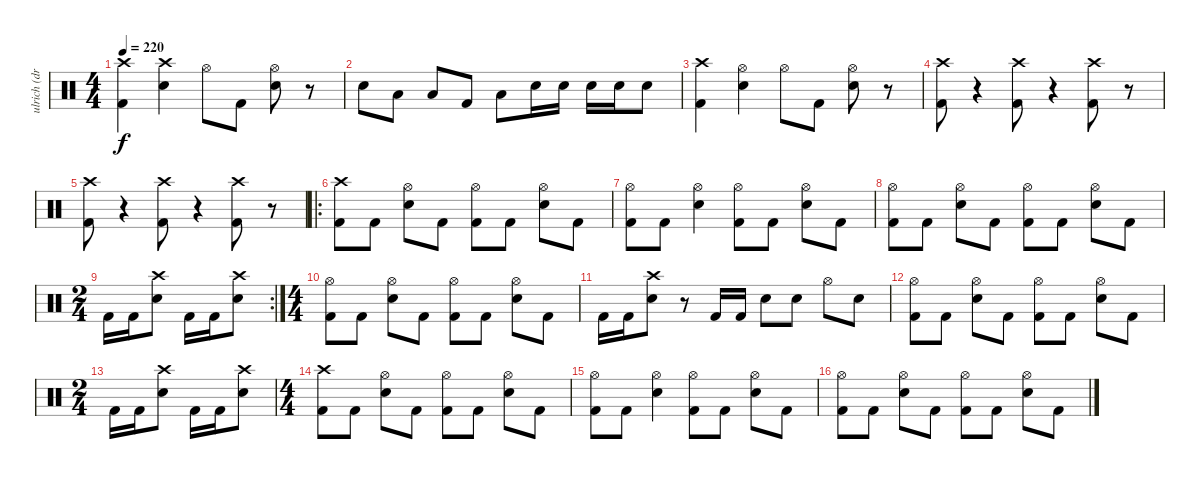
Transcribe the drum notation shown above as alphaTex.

\track ("ulrich (drums)" "ulrich (dr") {instrument percussion}
\staff {score}
\articulation defaults
\ts (4 4)
\tempo 220
\clef neutral
\ks c
("Crash high (hit)" "Kick (hit) 2").4{dy f} ("Crash high (hit)" "Snare (hit) 2").4 "Hi-Hat (open)".8 "Kick (hit) 2".8 ("Hi-Hat (open)" "Snare (hit) 2").8 r.8 |
"Snare (hit) 2".8 "Low Tom (hit)".8 "Low Tom (hit)".8 "Kick (hit) 2".8 "Low Tom (hit)".8 "Snare (hit) 2".16 "Snare (hit) 2".16 "Snare (hit) 2".16 "Snare (hit) 2".16 "Snare (hit) 2".8 |
("Crash high (hit)" "Kick (hit) 2").4 ("Hi-Hat (open)" "Snare (hit) 2").4 "Hi-Hat (open)".8 "Kick (hit) 2".8 ("Hi-Hat (open)" "Snare (hit) 2").8 r.8 |
("Crash high (hit)" "Kick (hit) 2").8 r.4 ("Crash high (hit)" "Kick (hit) 2").8 r.4 ("Crash high (hit)" "Kick (hit) 2").8 r.8 |
("Crash high (hit)" "Kick (hit) 2").8 r.4 ("Crash high (hit)" "Kick (hit) 2").8 r.4 ("Crash high (hit)" "Kick (hit) 2").8 r.8 |
\ro
("Crash high (hit)" "Kick (hit) 2").8 "Kick (hit) 2".8 ("Hi-Hat (open)" "Snare (hit) 2").8 "Kick (hit) 2".8 ("Hi-Hat (open)" "Kick (hit) 2").8 "Kick (hit) 2".8 ("Hi-Hat (open)" "Snare (hit) 2").8 "Kick (hit) 2".8 |
("Hi-Hat (open)" "Kick (hit) 2").8 "Kick (hit) 2".8 ("Hi-Hat (open)" "Snare (hit) 2").4 ("Hi-Hat (open)" "Kick (hit) 2").8 "Kick (hit) 2".8 ("Hi-Hat (open)" "Snare (hit) 2").8 "Kick (hit) 2".8 |
("Hi-Hat (open)" "Kick (hit) 2").8 "Kick (hit) 2".8 ("Hi-Hat (open)" "Snare (hit) 2").8 "Kick (hit) 2".8 ("Hi-Hat (open)" "Kick (hit) 2").8 "Kick (hit) 2".8 ("Hi-Hat (open)" "Snare (hit) 2").8 "Kick (hit) 2".8 |
\rc 2
\ts (2 4)
"Kick (hit) 2".16 "Kick (hit) 2".16 ("Crash high (hit)" "Snare (hit) 2").8 "Kick (hit) 2".16 "Kick (hit) 2".16 ("Crash high (hit)" "Snare (hit) 2").8 |
\ts (4 4)
("Hi-Hat (open)" "Kick (hit) 2").8 "Kick (hit) 2".8 ("Hi-Hat (open)" "Snare (hit) 2").8 "Kick (hit) 2".8 ("Hi-Hat (open)" "Kick (hit) 2").8 "Kick (hit) 2".8 ("Hi-Hat (open)" "Snare (hit) 2").8 "Kick (hit) 2".8 |
"Kick (hit) 2".16 "Kick (hit) 2".16 ("Crash high (hit)" "Snare (hit) 2").8 r.8 "Kick (hit) 2".16 "Kick (hit) 2".16 "Snare (hit) 2".8 "Snare (hit) 2".8 "Hi-Hat (open)".8 "Snare (hit) 2".8 |
("Hi-Hat (open)" "Kick (hit) 2").8 "Kick (hit) 2".8 ("Hi-Hat (open)" "Snare (hit) 2").8 "Kick (hit) 2".8 ("Hi-Hat (open)" "Kick (hit) 2").8 "Kick (hit) 2".8 ("Hi-Hat (open)" "Snare (hit) 2").8 "Kick (hit) 2".8 |
\ts (2 4)
"Kick (hit) 2".16 "Kick (hit) 2".16 ("Crash high (hit)" "Snare (hit) 2").8 "Kick (hit) 2".16 "Kick (hit) 2".16 ("Crash high (hit)" "Snare (hit) 2").8 |
\ts (4 4)
("Crash high (hit)" "Kick (hit) 2").8 "Kick (hit) 2".8 ("Hi-Hat (open)" "Snare (hit) 2").8 "Kick (hit) 2".8 ("Hi-Hat (open)" "Kick (hit) 2").8 "Kick (hit) 2".8 ("Hi-Hat (open)" "Snare (hit) 2").8 "Kick (hit) 2".8 |
("Hi-Hat (open)" "Kick (hit) 2").8 "Kick (hit) 2".8 ("Hi-Hat (open)" "Snare (hit) 2").4 ("Hi-Hat (open)" "Kick (hit) 2").8 "Kick (hit) 2".8 ("Hi-Hat (open)" "Snare (hit) 2").8 "Kick (hit) 2".8 |
("Hi-Hat (open)" "Kick (hit) 2").8 "Kick (hit) 2".8 ("Hi-Hat (open)" "Snare (hit) 2").8 "Kick (hit) 2".8 ("Hi-Hat (open)" "Kick (hit) 2").8 "Kick (hit) 2".8 ("Hi-Hat (open)" "Snare (hit) 2").8 "Kick (hit) 2".8
